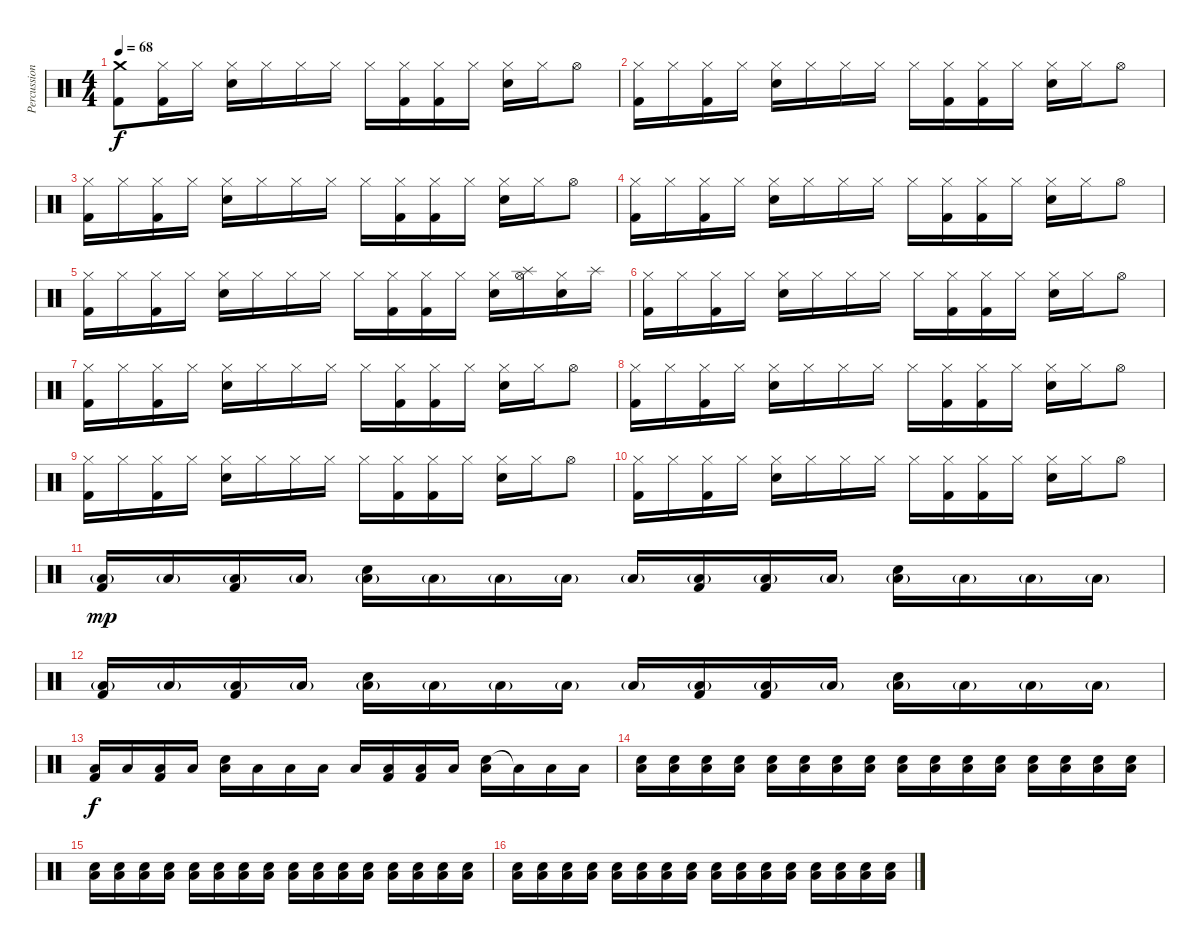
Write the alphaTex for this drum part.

\track ("Percussion" "Percussion") {instrument percussion}
\staff {score}
\articulation defaults
\ts (4 4)
\tempo 68
\clef neutral
\ks c
("Crash medium (hit)" "Kick (hit) 2").8{dy f} ("Hi-Hat (closed)" "Kick (hit) 2").16 "Hi-Hat (closed)".16 ("Hi-Hat (closed)" "Electric Snare (hit)").16 "Hi-Hat (closed)".16 "Hi-Hat (closed)".16 "Hi-Hat (closed)".16 "Hi-Hat (closed)".16 ("Hi-Hat (closed)" "Kick (hit) 2").16 ("Hi-Hat (closed)" "Kick (hit) 2").16 "Hi-Hat (closed)".16 ("Hi-Hat (closed)" "Electric Snare (hit)").16 "Hi-Hat (closed)".16 "Hi-Hat (open)".8 |
("Hi-Hat (closed)" "Kick (hit) 2").16 "Hi-Hat (closed)".16 ("Hi-Hat (closed)" "Kick (hit) 2").16 "Hi-Hat (closed)".16 ("Hi-Hat (closed)" "Electric Snare (hit)").16 "Hi-Hat (closed)".16 "Hi-Hat (closed)".16 "Hi-Hat (closed)".16 "Hi-Hat (closed)".16 ("Hi-Hat (closed)" "Kick (hit) 2").16 ("Hi-Hat (closed)" "Kick (hit) 2").16 "Hi-Hat (closed)".16 ("Hi-Hat (closed)" "Electric Snare (hit)").16 "Hi-Hat (closed)".16 "Hi-Hat (open)".8 |
("Hi-Hat (closed)" "Kick (hit) 2").16 "Hi-Hat (closed)".16 ("Hi-Hat (closed)" "Kick (hit) 2").16 "Hi-Hat (closed)".16 ("Hi-Hat (closed)" "Electric Snare (hit)").16 "Hi-Hat (closed)".16 "Hi-Hat (closed)".16 "Hi-Hat (closed)".16 "Hi-Hat (closed)".16 ("Hi-Hat (closed)" "Kick (hit) 2").16 ("Hi-Hat (closed)" "Kick (hit) 2").16 "Hi-Hat (closed)".16 ("Hi-Hat (closed)" "Electric Snare (hit)").16 "Hi-Hat (closed)".16 "Hi-Hat (open)".8 |
("Hi-Hat (closed)" "Kick (hit) 2").16 "Hi-Hat (closed)".16 ("Hi-Hat (closed)" "Kick (hit) 2").16 "Hi-Hat (closed)".16 ("Hi-Hat (closed)" "Electric Snare (hit)").16 "Hi-Hat (closed)".16 "Hi-Hat (closed)".16 "Hi-Hat (closed)".16 "Hi-Hat (closed)".16 ("Hi-Hat (closed)" "Kick (hit) 2").16 ("Hi-Hat (closed)" "Kick (hit) 2").16 "Hi-Hat (closed)".16 ("Hi-Hat (closed)" "Electric Snare (hit)").16 "Hi-Hat (closed)".16 "Hi-Hat (open)".8 |
("Hi-Hat (closed)" "Kick (hit) 2").16 "Hi-Hat (closed)".16 ("Hi-Hat (closed)" "Kick (hit) 2").16 "Hi-Hat (closed)".16 ("Hi-Hat (closed)" "Electric Snare (hit)").16 "Hi-Hat (closed)".16 "Hi-Hat (closed)".16 "Hi-Hat (closed)".16 "Hi-Hat (closed)".16 ("Hi-Hat (closed)" "Kick (hit) 2").16 ("Hi-Hat (closed)" "Kick (hit) 2").16 "Hi-Hat (closed)".16 ("Hi-Hat (closed)" "Electric Snare (hit)").16 ("Splash (hit)" "Hi-Hat (open)").16 ("Hi-Hat (closed)" "Electric Snare (hit)").16 "Splash (hit)".16 |
("Hi-Hat (closed)" "Kick (hit) 2").16 "Hi-Hat (closed)".16 ("Hi-Hat (closed)" "Kick (hit) 2").16 "Hi-Hat (closed)".16 ("Hi-Hat (closed)" "Electric Snare (hit)").16 "Hi-Hat (closed)".16 "Hi-Hat (closed)".16 "Hi-Hat (closed)".16 "Hi-Hat (closed)".16 ("Hi-Hat (closed)" "Kick (hit) 2").16 ("Hi-Hat (closed)" "Kick (hit) 2").16 "Hi-Hat (closed)".16 ("Hi-Hat (closed)" "Electric Snare (hit)").16 "Hi-Hat (closed)".16 "Hi-Hat (open)".8 |
("Hi-Hat (closed)" "Kick (hit) 2").16 "Hi-Hat (closed)".16 ("Hi-Hat (closed)" "Kick (hit) 2").16 "Hi-Hat (closed)".16 ("Hi-Hat (closed)" "Electric Snare (hit)").16 "Hi-Hat (closed)".16 "Hi-Hat (closed)".16 "Hi-Hat (closed)".16 "Hi-Hat (closed)".16 ("Hi-Hat (closed)" "Kick (hit) 2").16 ("Hi-Hat (closed)" "Kick (hit) 2").16 "Hi-Hat (closed)".16 ("Hi-Hat (closed)" "Electric Snare (hit)").16 "Hi-Hat (closed)".16 "Hi-Hat (open)".8 |
("Hi-Hat (closed)" "Kick (hit) 2").16 "Hi-Hat (closed)".16 ("Hi-Hat (closed)" "Kick (hit) 2").16 "Hi-Hat (closed)".16 ("Hi-Hat (closed)" "Electric Snare (hit)").16 "Hi-Hat (closed)".16 "Hi-Hat (closed)".16 "Hi-Hat (closed)".16 "Hi-Hat (closed)".16 ("Hi-Hat (closed)" "Kick (hit) 2").16 ("Hi-Hat (closed)" "Kick (hit) 2").16 "Hi-Hat (closed)".16 ("Hi-Hat (closed)" "Electric Snare (hit)").16 "Hi-Hat (closed)".16 "Hi-Hat (open)".8 |
("Hi-Hat (closed)" "Kick (hit) 2").16 "Hi-Hat (closed)".16 ("Hi-Hat (closed)" "Kick (hit) 2").16 "Hi-Hat (closed)".16 ("Hi-Hat (closed)" "Electric Snare (hit)").16 "Hi-Hat (closed)".16 "Hi-Hat (closed)".16 "Hi-Hat (closed)".16 "Hi-Hat (closed)".16 ("Hi-Hat (closed)" "Kick (hit) 2").16 ("Hi-Hat (closed)" "Kick (hit) 2").16 "Hi-Hat (closed)".16 ("Hi-Hat (closed)" "Electric Snare (hit)").16 "Hi-Hat (closed)".16 "Hi-Hat (open)".8 |
("Hi-Hat (closed)" "Kick (hit) 2").16 "Hi-Hat (closed)".16 ("Hi-Hat (closed)" "Kick (hit) 2").16 "Hi-Hat (closed)".16 ("Hi-Hat (closed)" "Electric Snare (hit)").16 "Hi-Hat (closed)".16 "Hi-Hat (closed)".16 "Hi-Hat (closed)".16 "Hi-Hat (closed)".16 ("Hi-Hat (closed)" "Kick (hit) 2").16 ("Hi-Hat (closed)" "Kick (hit) 2").16 "Hi-Hat (closed)".16 ("Hi-Hat (closed)" "Electric Snare (hit)").16 "Hi-Hat (closed)".16 "Hi-Hat (open)".8 |
("Low Floor Tom (hit)"{g} "Kick (hit) 2").16{dy mp} "Low Floor Tom (hit)"{g}.16 ("Low Floor Tom (hit)"{g} "Kick (hit) 2").16 "Low Floor Tom (hit)"{g}.16 ("Electric Snare (hit)" "Low Floor Tom (hit)"{g}).16 "Low Floor Tom (hit)"{g}.16 "Low Floor Tom (hit)"{g}.16 "Low Floor Tom (hit)"{g}.16 "Low Floor Tom (hit)"{g}.16 ("Low Floor Tom (hit)"{g} "Kick (hit) 2").16 ("Low Floor Tom (hit)"{g} "Kick (hit) 2").16 "Low Floor Tom (hit)"{g}.16 ("Electric Snare (hit)" "Low Floor Tom (hit)"{g}).16 "Low Floor Tom (hit)"{g}.16 "Low Floor Tom (hit)"{g}.16 "Low Floor Tom (hit)"{g}.16 |
("Low Floor Tom (hit)"{g} "Kick (hit) 2").16 "Low Floor Tom (hit)"{g}.16 ("Low Floor Tom (hit)"{g} "Kick (hit) 2").16 "Low Floor Tom (hit)"{g}.16 ("Electric Snare (hit)" "Low Floor Tom (hit)"{g}).16 "Low Floor Tom (hit)"{g}.16 "Low Floor Tom (hit)"{g}.16 "Low Floor Tom (hit)"{g}.16 "Low Floor Tom (hit)"{g}.16 ("Low Floor Tom (hit)"{g} "Kick (hit) 2").16 ("Low Floor Tom (hit)"{g} "Kick (hit) 2").16 "Low Floor Tom (hit)"{g}.16 ("Electric Snare (hit)" "Low Floor Tom (hit)"{g}).16 "Low Floor Tom (hit)"{g}.16 "Low Floor Tom (hit)"{g}.16 "Low Floor Tom (hit)"{g}.16 |
("Low Floor Tom (hit)" "Kick (hit) 2").16{dy f} "Low Floor Tom (hit)".16 ("Low Floor Tom (hit)" "Kick (hit) 2").16 "Low Floor Tom (hit)".16 ("Electric Snare (hit)" "Low Floor Tom (hit)").16 "Low Floor Tom (hit)".16 "Low Floor Tom (hit)".16 "Low Floor Tom (hit)".16 "Low Floor Tom (hit)".16 ("Low Floor Tom (hit)" "Kick (hit) 2").16 ("Low Floor Tom (hit)" "Kick (hit) 2").16 "Low Floor Tom (hit)".16 ("Electric Snare (hit)" "Low Floor Tom (hit)").16 "Low Floor Tom (hit)"{t}.16 "Low Floor Tom (hit)".16 "Low Floor Tom (hit)".16 |
("Electric Snare (hit)" "Low Floor Tom (hit)").16{volume 8} ("Electric Snare (hit)" "Low Floor Tom (hit)").16 ("Electric Snare (hit)" "Low Floor Tom (hit)").16 ("Electric Snare (hit)" "Low Floor Tom (hit)").16 ("Electric Snare (hit)" "Low Floor Tom (hit)").16 ("Electric Snare (hit)" "Low Floor Tom (hit)").16 ("Electric Snare (hit)" "Low Floor Tom (hit)").16 ("Electric Snare (hit)" "Low Floor Tom (hit)").16 ("Electric Snare (hit)" "Low Floor Tom (hit)").16{volume 11} ("Electric Snare (hit)" "Low Floor Tom (hit)").16 ("Electric Snare (hit)" "Low Floor Tom (hit)").16 ("Electric Snare (hit)" "Low Floor Tom (hit)").16 ("Electric Snare (hit)" "Low Floor Tom (hit)").16 ("Electric Snare (hit)" "Low Floor Tom (hit)").16 ("Electric Snare (hit)" "Low Floor Tom (hit)").16 ("Electric Snare (hit)" "Low Floor Tom (hit)").16 |
("Electric Snare (hit)" "Low Floor Tom (hit)").16{volume 13} ("Electric Snare (hit)" "Low Floor Tom (hit)").16 ("Electric Snare (hit)" "Low Floor Tom (hit)").16 ("Electric Snare (hit)" "Low Floor Tom (hit)").16 ("Electric Snare (hit)" "Low Floor Tom (hit)").16 ("Electric Snare (hit)" "Low Floor Tom (hit)").16 ("Electric Snare (hit)" "Low Floor Tom (hit)").16 ("Electric Snare (hit)" "Low Floor Tom (hit)").16 ("Electric Snare (hit)" "Low Floor Tom (hit)").16{volume 14} ("Electric Snare (hit)" "Low Floor Tom (hit)").16 ("Electric Snare (hit)" "Low Floor Tom (hit)").16 ("Electric Snare (hit)" "Low Floor Tom (hit)").16 ("Electric Snare (hit)" "Low Floor Tom (hit)").16 ("Electric Snare (hit)" "Low Floor Tom (hit)").16 ("Electric Snare (hit)" "Low Floor Tom (hit)").16 ("Electric Snare (hit)" "Low Floor Tom (hit)").16 |
("Electric Snare (hit)" "Low Floor Tom (hit)").16{volume 15} ("Electric Snare (hit)" "Low Floor Tom (hit)").16 ("Electric Snare (hit)" "Low Floor Tom (hit)").16 ("Electric Snare (hit)" "Low Floor Tom (hit)").16 ("Electric Snare (hit)" "Low Floor Tom (hit)").16 ("Electric Snare (hit)" "Low Floor Tom (hit)").16 ("Electric Snare (hit)" "Low Floor Tom (hit)").16 ("Electric Snare (hit)" "Low Floor Tom (hit)").16 ("Electric Snare (hit)" "Low Floor Tom (hit)").16{volume 16} ("Electric Snare (hit)" "Low Floor Tom (hit)").16 ("Electric Snare (hit)" "Low Floor Tom (hit)").16 ("Electric Snare (hit)" "Low Floor Tom (hit)").16 ("Electric Snare (hit)" "Low Floor Tom (hit)").16 ("Electric Snare (hit)" "Low Floor Tom (hit)").16 ("Electric Snare (hit)" "Low Floor Tom (hit)").16 ("Electric Snare (hit)" "Low Floor Tom (hit)").16
